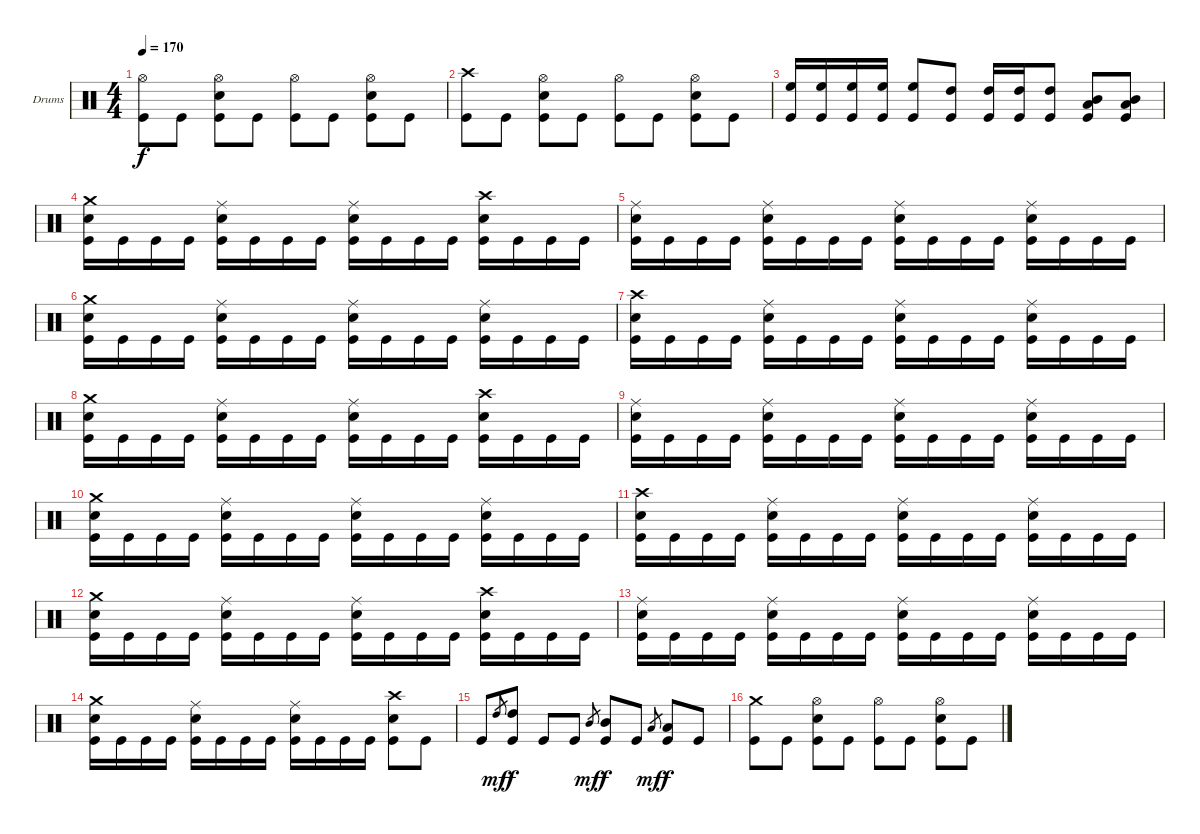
\bracketExtendMode groupsimilarinstruments
\firstSystemTrackNameOrientation horizontal
\otherSystemsTrackNameOrientation horizontal
\track ("Дмитрий Кривенков" "Drums") {instrument percussion}
\staff {score}
\articulation defaults
\ts (4 4)
\tempo 170
\clef neutral
\ks c
("Hi-Hat (open)" "Kick (hit)").8{dy f} "Kick (hit)".8 ("Hi-Hat (open)" "Snare (hit) 2" "Kick (hit)").8 "Kick (hit)".8 ("Hi-Hat (open)" "Kick (hit)").8 "Kick (hit)".8 ("Hi-Hat (open)" "Snare (hit) 2" "Kick (hit)").8 "Kick (hit)".8 |
("Crash high (hit)" "Kick (hit)").8 "Kick (hit)".8 ("Hi-Hat (open)" "Snare (hit) 2" "Kick (hit)").8 "Kick (hit)".8 ("Hi-Hat (open)" "Kick (hit)").8 "Kick (hit)".8 ("Hi-Hat (open)" "Snare (hit) 2" "Kick (hit)").8 "Kick (hit)".8 |
("High Floor Tom (hit)" "Kick (hit)").16 ("High Floor Tom (hit)" "Kick (hit)").16 ("High Floor Tom (hit)" "Kick (hit)").16 ("High Floor Tom (hit)" "Kick (hit)").16 ("High Floor Tom (hit)" "Kick (hit)").8 ("High Tom (hit)" "Kick (hit)").8 ("High Tom (hit)" "Kick (hit)").16 ("High Tom (hit)" "Kick (hit)").16 ("High Tom (hit)" "Kick (hit)").8 ("Mid Tom (hit)" "Low Tom (hit)" "Kick (hit)").8 ("Mid Tom (hit)" "Low Tom (hit)" "Kick (hit)").8 |
("Crash medium (hit)" "Snare (hit) 2" "Kick (hit)").16 "Kick (hit)".16 "Kick (hit)".16 "Kick (hit)".16 ("Ride (middle)" "Snare (hit) 2" "Kick (hit)").16 "Kick (hit)".16 "Kick (hit)".16 "Kick (hit)".16 ("Ride (middle)" "Snare (hit) 2" "Kick (hit)").16 "Kick (hit)".16 "Kick (hit)".16 "Kick (hit)".16 ("Crash high (hit)" "Snare (hit) 2" "Kick (hit)").16 "Kick (hit)".16 "Kick (hit)".16 "Kick (hit)".16 |
("Ride (middle)" "Snare (hit) 2" "Kick (hit)").16 "Kick (hit)".16 "Kick (hit)".16 "Kick (hit)".16 ("Ride (middle)" "Snare (hit) 2" "Kick (hit)").16 "Kick (hit)".16 "Kick (hit)".16 "Kick (hit)".16 ("Ride (middle)" "Snare (hit) 2" "Kick (hit)").16 "Kick (hit)".16 "Kick (hit)".16 "Kick (hit)".16 ("Ride (middle)" "Snare (hit) 2" "Kick (hit)").16 "Kick (hit)".16 "Kick (hit)".16 "Kick (hit)".16 |
("Crash medium (hit)" "Snare (hit) 2" "Kick (hit)").16 "Kick (hit)".16 "Kick (hit)".16 "Kick (hit)".16 ("Ride (middle)" "Snare (hit) 2" "Kick (hit)").16 "Kick (hit)".16 "Kick (hit)".16 "Kick (hit)".16 ("Ride (middle)" "Snare (hit) 2" "Kick (hit)").16 "Kick (hit)".16 "Kick (hit)".16 "Kick (hit)".16 ("Ride (middle)" "Snare (hit) 2" "Kick (hit)").16 "Kick (hit)".16 "Kick (hit)".16 "Kick (hit)".16 |
("Crash high (hit)" "Snare (hit) 2" "Kick (hit)").16 "Kick (hit)".16 "Kick (hit)".16 "Kick (hit)".16 ("Ride (middle)" "Snare (hit) 2" "Kick (hit)").16 "Kick (hit)".16 "Kick (hit)".16 "Kick (hit)".16 ("Ride (middle)" "Snare (hit) 2" "Kick (hit)").16 "Kick (hit)".16 "Kick (hit)".16 "Kick (hit)".16 ("Ride (middle)" "Snare (hit) 2" "Kick (hit)").16 "Kick (hit)".16 "Kick (hit)".16 "Kick (hit)".16 |
("Crash medium (hit)" "Snare (hit) 2" "Kick (hit)").16 "Kick (hit)".16 "Kick (hit)".16 "Kick (hit)".16 ("Ride (middle)" "Snare (hit) 2" "Kick (hit)").16 "Kick (hit)".16 "Kick (hit)".16 "Kick (hit)".16 ("Ride (middle)" "Snare (hit) 2" "Kick (hit)").16 "Kick (hit)".16 "Kick (hit)".16 "Kick (hit)".16 ("Crash high (hit)" "Snare (hit) 2" "Kick (hit)").16 "Kick (hit)".16 "Kick (hit)".16 "Kick (hit)".16 |
("Ride (middle)" "Snare (hit) 2" "Kick (hit)").16 "Kick (hit)".16 "Kick (hit)".16 "Kick (hit)".16 ("Ride (middle)" "Snare (hit) 2" "Kick (hit)").16 "Kick (hit)".16 "Kick (hit)".16 "Kick (hit)".16 ("Ride (middle)" "Snare (hit) 2" "Kick (hit)").16 "Kick (hit)".16 "Kick (hit)".16 "Kick (hit)".16 ("Ride (middle)" "Snare (hit) 2" "Kick (hit)").16 "Kick (hit)".16 "Kick (hit)".16 "Kick (hit)".16 |
("Crash medium (hit)" "Snare (hit) 2" "Kick (hit)").16 "Kick (hit)".16 "Kick (hit)".16 "Kick (hit)".16 ("Ride (middle)" "Snare (hit) 2" "Kick (hit)").16 "Kick (hit)".16 "Kick (hit)".16 "Kick (hit)".16 ("Ride (middle)" "Snare (hit) 2" "Kick (hit)").16 "Kick (hit)".16 "Kick (hit)".16 "Kick (hit)".16 ("Ride (middle)" "Snare (hit) 2" "Kick (hit)").16 "Kick (hit)".16 "Kick (hit)".16 "Kick (hit)".16 |
("Crash high (hit)" "Snare (hit) 2" "Kick (hit)").16 "Kick (hit)".16 "Kick (hit)".16 "Kick (hit)".16 ("Ride (middle)" "Snare (hit) 2" "Kick (hit)").16 "Kick (hit)".16 "Kick (hit)".16 "Kick (hit)".16 ("Ride (middle)" "Snare (hit) 2" "Kick (hit)").16 "Kick (hit)".16 "Kick (hit)".16 "Kick (hit)".16 ("Ride (middle)" "Snare (hit) 2" "Kick (hit)").16 "Kick (hit)".16 "Kick (hit)".16 "Kick (hit)".16 |
("Crash medium (hit)" "Snare (hit) 2" "Kick (hit)").16 "Kick (hit)".16 "Kick (hit)".16 "Kick (hit)".16 ("Ride (middle)" "Snare (hit) 2" "Kick (hit)").16 "Kick (hit)".16 "Kick (hit)".16 "Kick (hit)".16 ("Ride (middle)" "Snare (hit) 2" "Kick (hit)").16 "Kick (hit)".16 "Kick (hit)".16 "Kick (hit)".16 ("Crash high (hit)" "Snare (hit) 2" "Kick (hit)").16 "Kick (hit)".16 "Kick (hit)".16 "Kick (hit)".16 |
("Ride (middle)" "Snare (hit) 2" "Kick (hit)").16 "Kick (hit)".16 "Kick (hit)".16 "Kick (hit)".16 ("Ride (middle)" "Snare (hit) 2" "Kick (hit)").16 "Kick (hit)".16 "Kick (hit)".16 "Kick (hit)".16 ("Ride (middle)" "Snare (hit) 2" "Kick (hit)").16 "Kick (hit)".16 "Kick (hit)".16 "Kick (hit)".16 ("Ride (middle)" "Snare (hit) 2" "Kick (hit)").16 "Kick (hit)".16 "Kick (hit)".16 "Kick (hit)".16 |
("Crash medium (hit)" "Snare (hit) 2" "Kick (hit)").16 "Kick (hit)".16 "Kick (hit)".16 "Kick (hit)".16 ("Ride (middle)" "Snare (hit) 2" "Kick (hit)").16 "Kick (hit)".16 "Kick (hit)".16 "Kick (hit)".16 ("Ride (middle)" "Snare (hit) 2" "Kick (hit)").16 "Kick (hit)".16 "Kick (hit)".16 "Kick (hit)".16 ("Crash high (hit)" "Snare (hit) 2" "Kick (hit)").8 "Kick (hit)".8 |
"Kick (hit)".8 "High Tom (hit)".8{gr dy mf} ("High Tom (hit)" "Kick (hit)").8{dy f} "Kick (hit)".8 "Kick (hit)".8 "Mid Tom (hit)".8{gr dy mf} ("Mid Tom (hit)" "Kick (hit)").8{dy f} "Kick (hit)".8 "Low Tom (hit)".8{gr dy mf} ("Low Tom (hit)" "Kick (hit)").8{dy f} "Kick (hit)".8 |
("Crash medium (hit)" "Kick (hit)").8 "Kick (hit)".8 ("Hi-Hat (open)" "Snare (hit) 2" "Kick (hit)").8 "Kick (hit)".8 ("Hi-Hat (open)" "Kick (hit)").8 "Kick (hit)".8 ("Hi-Hat (open)" "Snare (hit) 2" "Kick (hit)").8 "Kick (hit)".8
